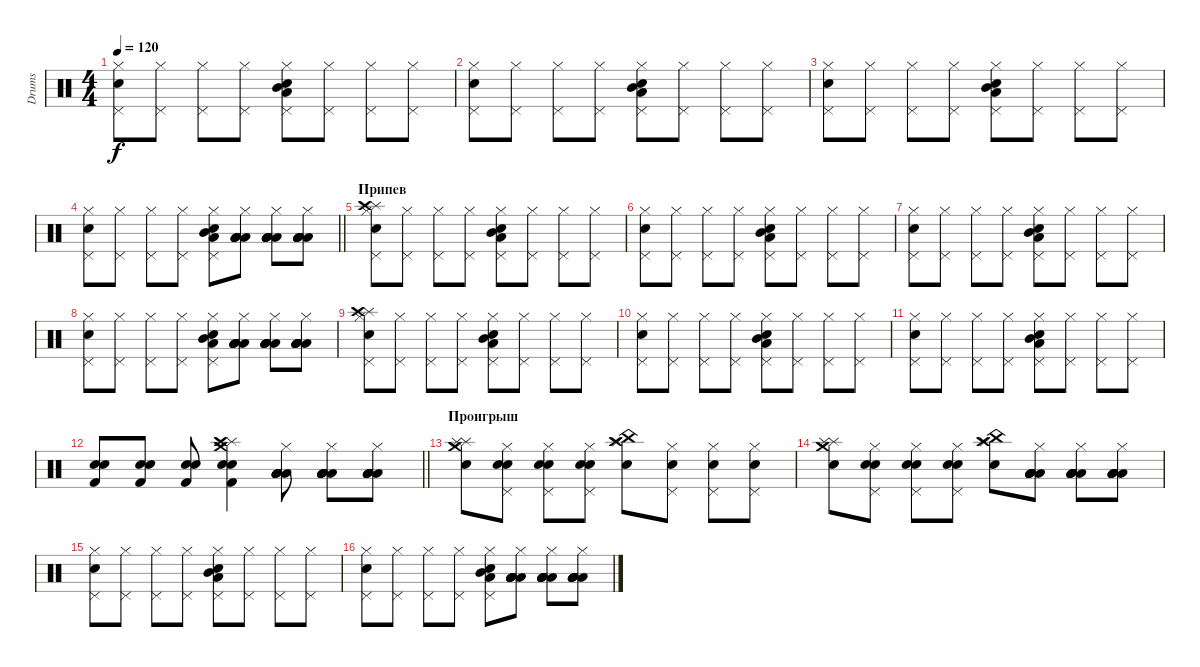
\track ("Drums" "Drums") {instrument percussion}
\staff {score}
\articulation defaults
\ts (4 4)
\tempo 120
\clef neutral
\ks c
("Hi-Hat (closed)" "Pedal Hi-Hat (hit)" "Snare (hit) 2").8{dy f} ("Hi-Hat (closed)" "Pedal Hi-Hat (hit)").8 ("Hi-Hat (closed)" "Pedal Hi-Hat (hit)").8 ("Hi-Hat (closed)" "Pedal Hi-Hat (hit)").8 ("Hi-Hat (closed)" "Pedal Hi-Hat (hit)" "Mid Tom (hit)" "Low Floor Tom (hit)" "Electric Snare (hit)").8 ("Hi-Hat (closed)" "Pedal Hi-Hat (hit)").8 ("Hi-Hat (closed)" "Pedal Hi-Hat (hit)").8 ("Hi-Hat (closed)" "Pedal Hi-Hat (hit)").8 |
("Hi-Hat (closed)" "Pedal Hi-Hat (hit)" "Snare (hit) 2").8 ("Hi-Hat (closed)" "Pedal Hi-Hat (hit)").8 ("Hi-Hat (closed)" "Pedal Hi-Hat (hit)").8 ("Hi-Hat (closed)" "Pedal Hi-Hat (hit)").8 ("Hi-Hat (closed)" "Pedal Hi-Hat (hit)" "Mid Tom (hit)" "Low Floor Tom (hit)" "Electric Snare (hit)").8 ("Hi-Hat (closed)" "Pedal Hi-Hat (hit)").8 ("Hi-Hat (closed)" "Pedal Hi-Hat (hit)").8 ("Hi-Hat (closed)" "Pedal Hi-Hat (hit)").8 |
("Hi-Hat (closed)" "Pedal Hi-Hat (hit)" "Snare (hit) 2").8 ("Hi-Hat (closed)" "Pedal Hi-Hat (hit)").8 ("Hi-Hat (closed)" "Pedal Hi-Hat (hit)").8 ("Hi-Hat (closed)" "Pedal Hi-Hat (hit)").8 ("Hi-Hat (closed)" "Pedal Hi-Hat (hit)" "Mid Tom (hit)" "Low Floor Tom (hit)" "Electric Snare (hit)").8 ("Hi-Hat (closed)" "Pedal Hi-Hat (hit)").8 ("Hi-Hat (closed)" "Pedal Hi-Hat (hit)").8 ("Hi-Hat (closed)" "Pedal Hi-Hat (hit)").8 |
\barLineRight lightlight
("Hi-Hat (closed)" "Pedal Hi-Hat (hit)" "Snare (hit) 2").8 ("Hi-Hat (closed)" "Pedal Hi-Hat (hit)").8 ("Hi-Hat (closed)" "Pedal Hi-Hat (hit)").8 ("Hi-Hat (closed)" "Pedal Hi-Hat (hit)").8 ("Hi-Hat (closed)" "Pedal Hi-Hat (hit)" "Mid Tom (hit)" "Low Floor Tom (hit)" "Electric Snare (hit)").8 ("Hi-Hat (closed)" "Low Tom (hit)" "Low Tom (hit)" "Low Tom (hit)" "Low Tom (hit)" "Low Tom (hit)").8 ("Hi-Hat (closed)" "Low Tom (hit)" "Low Tom (hit)" "Low Tom (hit)" "Low Tom (hit)" "Low Tom (hit)").8 ("Hi-Hat (closed)" "Low Tom (hit)" "Low Tom (hit)" "Low Tom (hit)" "Low Tom (hit)" "Low Tom (hit)").8 |
\section ("" "Припев")
("Hi-Hat (closed)" "Pedal Hi-Hat (hit)" "Snare (hit) 2" "Splash (hit)" "Crash high (hit)").8 ("Hi-Hat (closed)" "Pedal Hi-Hat (hit)").8 ("Hi-Hat (closed)" "Pedal Hi-Hat (hit)").8 ("Hi-Hat (closed)" "Pedal Hi-Hat (hit)").8 ("Hi-Hat (closed)" "Pedal Hi-Hat (hit)" "Mid Tom (hit)" "Low Floor Tom (hit)" "Electric Snare (hit)").8 ("Hi-Hat (closed)" "Pedal Hi-Hat (hit)").8 ("Hi-Hat (closed)" "Pedal Hi-Hat (hit)").8 ("Hi-Hat (closed)" "Pedal Hi-Hat (hit)").8 |
("Hi-Hat (closed)" "Pedal Hi-Hat (hit)" "Snare (hit) 2").8 ("Hi-Hat (closed)" "Pedal Hi-Hat (hit)").8 ("Hi-Hat (closed)" "Pedal Hi-Hat (hit)").8 ("Hi-Hat (closed)" "Pedal Hi-Hat (hit)").8 ("Hi-Hat (closed)" "Pedal Hi-Hat (hit)" "Mid Tom (hit)" "Low Floor Tom (hit)" "Electric Snare (hit)").8 ("Hi-Hat (closed)" "Pedal Hi-Hat (hit)").8 ("Hi-Hat (closed)" "Pedal Hi-Hat (hit)").8 ("Hi-Hat (closed)" "Pedal Hi-Hat (hit)").8 |
("Hi-Hat (closed)" "Pedal Hi-Hat (hit)" "Snare (hit) 2").8 ("Hi-Hat (closed)" "Pedal Hi-Hat (hit)").8 ("Hi-Hat (closed)" "Pedal Hi-Hat (hit)").8 ("Hi-Hat (closed)" "Pedal Hi-Hat (hit)").8 ("Hi-Hat (closed)" "Pedal Hi-Hat (hit)" "Mid Tom (hit)" "Low Floor Tom (hit)" "Electric Snare (hit)").8 ("Hi-Hat (closed)" "Pedal Hi-Hat (hit)").8 ("Hi-Hat (closed)" "Pedal Hi-Hat (hit)").8 ("Hi-Hat (closed)" "Pedal Hi-Hat (hit)").8 |
("Hi-Hat (closed)" "Pedal Hi-Hat (hit)" "Snare (hit) 2").8 ("Hi-Hat (closed)" "Pedal Hi-Hat (hit)").8 ("Hi-Hat (closed)" "Pedal Hi-Hat (hit)").8 ("Hi-Hat (closed)" "Pedal Hi-Hat (hit)").8 ("Hi-Hat (closed)" "Pedal Hi-Hat (hit)" "Mid Tom (hit)" "Low Floor Tom (hit)" "Electric Snare (hit)").8 ("Hi-Hat (closed)" "Low Tom (hit)" "Low Tom (hit)" "Low Tom (hit)" "Low Tom (hit)" "Low Tom (hit)").8 ("Hi-Hat (closed)" "Low Tom (hit)" "Low Tom (hit)" "Low Tom (hit)" "Low Tom (hit)" "Low Tom (hit)").8 ("Hi-Hat (closed)" "Low Tom (hit)" "Low Tom (hit)" "Low Tom (hit)" "Low Tom (hit)" "Low Tom (hit)").8 |
("Hi-Hat (closed)" "Pedal Hi-Hat (hit)" "Snare (hit) 2" "Splash (hit)" "Crash high (hit)").8 ("Hi-Hat (closed)" "Pedal Hi-Hat (hit)").8 ("Hi-Hat (closed)" "Pedal Hi-Hat (hit)").8 ("Hi-Hat (closed)" "Pedal Hi-Hat (hit)").8 ("Hi-Hat (closed)" "Pedal Hi-Hat (hit)" "Mid Tom (hit)" "Low Floor Tom (hit)" "Electric Snare (hit)").8 ("Hi-Hat (closed)" "Pedal Hi-Hat (hit)").8 ("Hi-Hat (closed)" "Pedal Hi-Hat (hit)").8 ("Hi-Hat (closed)" "Pedal Hi-Hat (hit)").8 |
("Hi-Hat (closed)" "Pedal Hi-Hat (hit)" "Snare (hit) 2").8 ("Hi-Hat (closed)" "Pedal Hi-Hat (hit)").8 ("Hi-Hat (closed)" "Pedal Hi-Hat (hit)").8 ("Hi-Hat (closed)" "Pedal Hi-Hat (hit)").8 ("Hi-Hat (closed)" "Pedal Hi-Hat (hit)" "Mid Tom (hit)" "Low Floor Tom (hit)" "Electric Snare (hit)").8 ("Hi-Hat (closed)" "Pedal Hi-Hat (hit)").8 ("Hi-Hat (closed)" "Pedal Hi-Hat (hit)").8 ("Hi-Hat (closed)" "Pedal Hi-Hat (hit)").8 |
("Hi-Hat (closed)" "Pedal Hi-Hat (hit)" "Snare (hit) 2").8 ("Hi-Hat (closed)" "Pedal Hi-Hat (hit)").8 ("Hi-Hat (closed)" "Pedal Hi-Hat (hit)").8 ("Hi-Hat (closed)" "Pedal Hi-Hat (hit)").8 ("Hi-Hat (closed)" "Pedal Hi-Hat (hit)" "Mid Tom (hit)" "Low Floor Tom (hit)" "Electric Snare (hit)").8 ("Hi-Hat (closed)" "Pedal Hi-Hat (hit)").8 ("Hi-Hat (closed)" "Pedal Hi-Hat (hit)").8 ("Hi-Hat (closed)" "Pedal Hi-Hat (hit)").8 |
\barLineRight lightlight
("Kick (hit) 2" "Snare (hit) 2" "Electric Snare (hit)").8 ("Kick (hit) 2" "Snare (hit) 2" "Electric Snare (hit)").8 ("Kick (hit) 2" "Snare (hit) 2" "Electric Snare (hit)").8 ("Kick (hit) 2" "Snare (hit) 2" "Electric Snare (hit)" "Splash (hit)" "Crash medium (hit)" "Crash high (hit)").4 ("Hi-Hat (closed)" "Low Tom (hit)" "Low Tom (hit)" "Low Tom (hit)" "Low Tom (hit)" "Low Tom (hit)").8 ("Hi-Hat (closed)" "Low Tom (hit)" "Low Tom (hit)" "Low Tom (hit)" "Low Tom (hit)" "Low Tom (hit)").8 ("Hi-Hat (closed)" "Low Tom (hit)" "Low Tom (hit)" "Low Tom (hit)" "Low Tom (hit)" "Low Tom (hit)").8 |
\section ("" "Проигрыш")
("Snare (hit) 2" "Crash medium (hit)" "Splash (hit)" "Splash (hit)").8 ("Hi-Hat (closed)" "Pedal Hi-Hat (hit)" "Snare (hit) 2" "Snare (hit) 2").8 ("Hi-Hat (closed)" "Pedal Hi-Hat (hit)" "Snare (hit) 2" "Snare (hit) 2").8 ("Hi-Hat (closed)" "Pedal Hi-Hat (hit)" "Snare (hit) 2" "Snare (hit) 2").8 ("Crash high (hit)" "Splash (hit)" "China (hit)" "Snare (hit) 2").8 ("Hi-Hat (closed)" "Pedal Hi-Hat (hit)" "Snare (hit) 2").8 ("Hi-Hat (closed)" "Pedal Hi-Hat (hit)" "Snare (hit) 2").8 ("Hi-Hat (closed)" "Pedal Hi-Hat (hit)" "Snare (hit) 2").8 |
("Snare (hit) 2" "Crash medium (hit)" "Splash (hit)" "Splash (hit)").8 ("Hi-Hat (closed)" "Pedal Hi-Hat (hit)" "Snare (hit) 2" "Snare (hit) 2").8 ("Hi-Hat (closed)" "Pedal Hi-Hat (hit)" "Snare (hit) 2" "Snare (hit) 2").8 ("Hi-Hat (closed)" "Pedal Hi-Hat (hit)" "Snare (hit) 2" "Snare (hit) 2").8 ("Crash high (hit)" "Splash (hit)" "China (hit)" "Snare (hit) 2").8 ("Hi-Hat (closed)" "Low Tom (hit)" "Low Tom (hit)" "Low Tom (hit)" "Low Tom (hit)" "Low Tom (hit)").8 ("Hi-Hat (closed)" "Low Tom (hit)" "Low Tom (hit)" "Low Tom (hit)" "Low Tom (hit)" "Low Tom (hit)").8 ("Hi-Hat (closed)" "Low Tom (hit)" "Low Tom (hit)" "Low Tom (hit)" "Low Tom (hit)" "Low Tom (hit)").8 |
("Hi-Hat (closed)" "Pedal Hi-Hat (hit)" "Snare (hit) 2").8 ("Hi-Hat (closed)" "Pedal Hi-Hat (hit)").8 ("Hi-Hat (closed)" "Pedal Hi-Hat (hit)").8 ("Hi-Hat (closed)" "Pedal Hi-Hat (hit)").8 ("Hi-Hat (closed)" "Pedal Hi-Hat (hit)" "Mid Tom (hit)" "Low Floor Tom (hit)" "Electric Snare (hit)").8 ("Hi-Hat (closed)" "Pedal Hi-Hat (hit)").8 ("Hi-Hat (closed)" "Pedal Hi-Hat (hit)").8 ("Hi-Hat (closed)" "Pedal Hi-Hat (hit)").8 |
("Hi-Hat (closed)" "Pedal Hi-Hat (hit)" "Snare (hit) 2").8 ("Hi-Hat (closed)" "Pedal Hi-Hat (hit)").8 ("Hi-Hat (closed)" "Pedal Hi-Hat (hit)").8 ("Hi-Hat (closed)" "Pedal Hi-Hat (hit)").8 ("Hi-Hat (closed)" "Pedal Hi-Hat (hit)" "Mid Tom (hit)" "Low Floor Tom (hit)" "Electric Snare (hit)").8 ("Hi-Hat (closed)" "Low Tom (hit)" "Low Tom (hit)" "Low Tom (hit)" "Low Tom (hit)" "Low Tom (hit)").8 ("Hi-Hat (closed)" "Low Tom (hit)" "Low Tom (hit)" "Low Tom (hit)" "Low Tom (hit)" "Low Tom (hit)").8 ("Hi-Hat (closed)" "Low Tom (hit)" "Low Tom (hit)" "Low Tom (hit)" "Low Tom (hit)" "Low Tom (hit)").8
